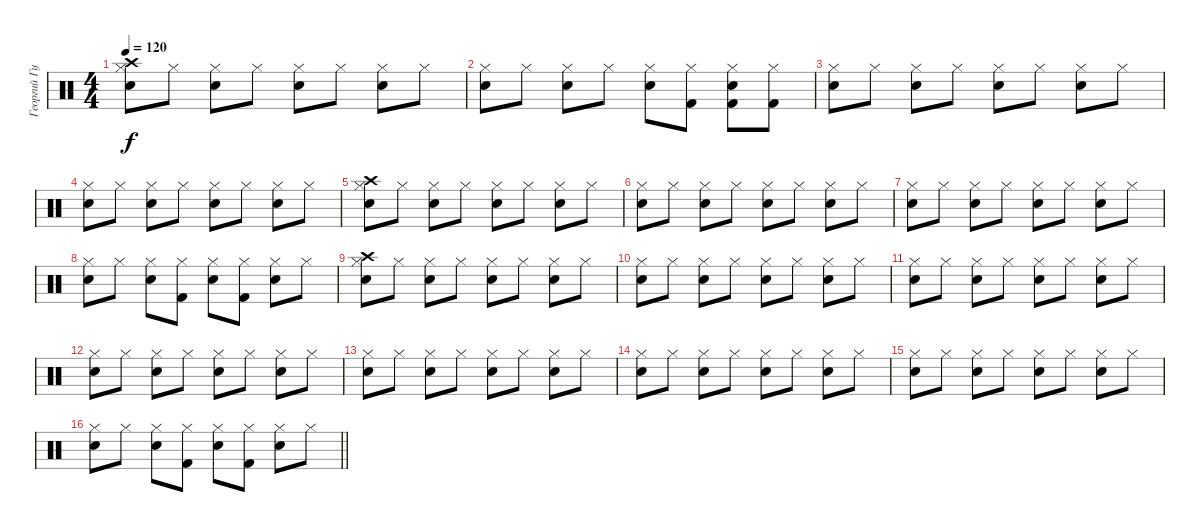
\track ("Георгий Гурьянов" "Георгий Гу") {instrument percussion}
\staff {score}
\articulation defaults
\ts (4 4)
\tempo 120
\clef neutral
\ks c
("Hi-Hat (closed)" "Crash high (hit)" "Snare (hit) 2").8{dy f} "Hi-Hat (closed)".8 ("Hi-Hat (closed)" "Snare (hit) 2").8 "Hi-Hat (closed)".8 ("Hi-Hat (closed)" "Snare (hit) 2").8 "Hi-Hat (closed)".8 ("Hi-Hat (closed)" "Snare (hit) 2").8 "Hi-Hat (closed)".8 |
("Hi-Hat (closed)" "Snare (hit) 2").8 "Hi-Hat (closed)".8 ("Hi-Hat (closed)" "Snare (hit) 2").8 "Hi-Hat (closed)".8 ("Hi-Hat (closed)" "Snare (hit) 2").8 ("Hi-Hat (closed)" "Kick (hit) 2").8 ("Hi-Hat (closed)" "Snare (hit) 2" "Kick (hit) 2").8 ("Hi-Hat (closed)" "Kick (hit) 2").8 |
("Hi-Hat (closed)" "Snare (hit) 2").8 "Hi-Hat (closed)".8 ("Hi-Hat (closed)" "Snare (hit) 2").8 "Hi-Hat (closed)".8 ("Hi-Hat (closed)" "Snare (hit) 2").8 "Hi-Hat (closed)".8 ("Hi-Hat (closed)" "Snare (hit) 2").8 "Hi-Hat (closed)".8 |
("Hi-Hat (closed)" "Snare (hit) 2").8 "Hi-Hat (closed)".8 ("Hi-Hat (closed)" "Snare (hit) 2").8 "Hi-Hat (closed)".8 ("Hi-Hat (closed)" "Snare (hit) 2").8 "Hi-Hat (closed)".8 ("Hi-Hat (closed)" "Snare (hit) 2").8 "Hi-Hat (closed)".8 |
("Hi-Hat (closed)" "Crash high (hit)" "Snare (hit) 2").8 "Hi-Hat (closed)".8 ("Hi-Hat (closed)" "Snare (hit) 2").8 "Hi-Hat (closed)".8 ("Hi-Hat (closed)" "Snare (hit) 2").8 "Hi-Hat (closed)".8 ("Hi-Hat (closed)" "Snare (hit) 2").8 "Hi-Hat (closed)".8 |
("Hi-Hat (closed)" "Snare (hit) 2").8 "Hi-Hat (closed)".8 ("Hi-Hat (closed)" "Snare (hit) 2").8 "Hi-Hat (closed)".8 ("Hi-Hat (closed)" "Snare (hit) 2").8 "Hi-Hat (closed)".8 ("Hi-Hat (closed)" "Snare (hit) 2").8 "Hi-Hat (closed)".8 |
("Hi-Hat (closed)" "Snare (hit) 2").8 "Hi-Hat (closed)".8 ("Hi-Hat (closed)" "Snare (hit) 2").8 "Hi-Hat (closed)".8 ("Hi-Hat (closed)" "Snare (hit) 2").8 "Hi-Hat (closed)".8 ("Hi-Hat (closed)" "Snare (hit) 2").8 "Hi-Hat (closed)".8 |
("Hi-Hat (closed)" "Snare (hit) 2").8 "Hi-Hat (closed)".8 ("Hi-Hat (closed)" "Snare (hit) 2").8 ("Hi-Hat (closed)" "Kick (hit) 2").8 ("Hi-Hat (closed)" "Snare (hit) 2").8 ("Hi-Hat (closed)" "Kick (hit) 2").8 ("Hi-Hat (closed)" "Snare (hit) 2").8 "Hi-Hat (closed)".8 |
("Hi-Hat (closed)" "Crash high (hit)" "Snare (hit) 2").8 "Hi-Hat (closed)".8 ("Hi-Hat (closed)" "Snare (hit) 2").8 "Hi-Hat (closed)".8 ("Hi-Hat (closed)" "Snare (hit) 2").8 "Hi-Hat (closed)".8 ("Hi-Hat (closed)" "Snare (hit) 2").8 "Hi-Hat (closed)".8 |
("Hi-Hat (closed)" "Snare (hit) 2").8 "Hi-Hat (closed)".8 ("Hi-Hat (closed)" "Snare (hit) 2").8 "Hi-Hat (closed)".8 ("Hi-Hat (closed)" "Snare (hit) 2").8 "Hi-Hat (closed)".8 ("Hi-Hat (closed)" "Snare (hit) 2").8 "Hi-Hat (closed)".8 |
("Hi-Hat (closed)" "Snare (hit) 2").8 "Hi-Hat (closed)".8 ("Hi-Hat (closed)" "Snare (hit) 2").8 "Hi-Hat (closed)".8 ("Hi-Hat (closed)" "Snare (hit) 2").8 "Hi-Hat (closed)".8 ("Hi-Hat (closed)" "Snare (hit) 2").8 "Hi-Hat (closed)".8 |
("Hi-Hat (closed)" "Snare (hit) 2").8 "Hi-Hat (closed)".8 ("Hi-Hat (closed)" "Snare (hit) 2").8 "Hi-Hat (closed)".8 ("Hi-Hat (closed)" "Snare (hit) 2").8 "Hi-Hat (closed)".8 ("Hi-Hat (closed)" "Snare (hit) 2").8 "Hi-Hat (closed)".8 |
("Hi-Hat (closed)" "Snare (hit) 2").8 "Hi-Hat (closed)".8 ("Hi-Hat (closed)" "Snare (hit) 2").8 "Hi-Hat (closed)".8 ("Hi-Hat (closed)" "Snare (hit) 2").8 "Hi-Hat (closed)".8 ("Hi-Hat (closed)" "Snare (hit) 2").8 "Hi-Hat (closed)".8 |
("Hi-Hat (closed)" "Snare (hit) 2").8 "Hi-Hat (closed)".8 ("Hi-Hat (closed)" "Snare (hit) 2").8 "Hi-Hat (closed)".8 ("Hi-Hat (closed)" "Snare (hit) 2").8 "Hi-Hat (closed)".8 ("Hi-Hat (closed)" "Snare (hit) 2").8 "Hi-Hat (closed)".8 |
("Hi-Hat (closed)" "Snare (hit) 2").8 "Hi-Hat (closed)".8 ("Hi-Hat (closed)" "Snare (hit) 2").8 "Hi-Hat (closed)".8 ("Hi-Hat (closed)" "Snare (hit) 2").8 "Hi-Hat (closed)".8 ("Hi-Hat (closed)" "Snare (hit) 2").8 "Hi-Hat (closed)".8 |
\barLineRight lightlight
("Hi-Hat (closed)" "Snare (hit) 2").8 "Hi-Hat (closed)".8 ("Hi-Hat (closed)" "Snare (hit) 2").8 ("Hi-Hat (closed)" "Kick (hit) 2").8 ("Hi-Hat (closed)" "Snare (hit) 2").8 ("Hi-Hat (closed)" "Kick (hit) 2").8 ("Hi-Hat (closed)" "Snare (hit) 2").8 "Hi-Hat (closed)".8
